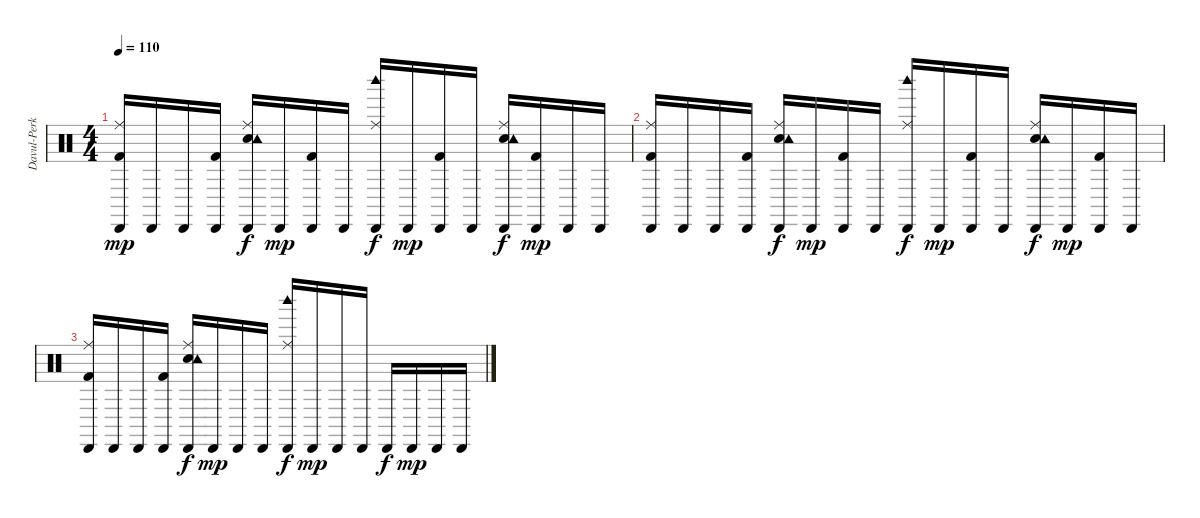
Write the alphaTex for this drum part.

\track ("Davul-Perküsyon" "Davul-Perk") {instrument percussion}
\staff {score}
\articulation defaults
\ts (4 4)
\tempo 110
\clef neutral
\ks c
("Ride (middle)" "Cabasa (hit)" "Kick (hit) 2").16{dy mp} "Cabasa (hit)".16 "Cabasa (hit)".16 ("Cabasa (hit)" "Kick (hit) 2").16 ("Electric Snare (hit)" "Ride (middle)" "Tambourine (hit)" "Cabasa (hit)").16{dy f} "Cabasa (hit)".16{dy mp} ("Cabasa (hit)" "Kick (hit) 2").16 "Cabasa (hit)".16 ("Ride (middle)" "Woodblock high (hit)" "Cabasa (hit)").16{dy f} "Cabasa (hit)".16{dy mp} ("Cabasa (hit)" "Kick (hit) 2").16 "Cabasa (hit)".16 ("Electric Snare (hit)" "Ride (middle)" "Tambourine (hit)" "Cabasa (hit)").16{dy f} ("Cabasa (hit)" "Kick (hit) 2").16{dy mp} "Cabasa (hit)".16 "Cabasa (hit)".16 |
("Ride (middle)" "Cabasa (hit)" "Kick (hit) 2").16 "Cabasa (hit)".16 "Cabasa (hit)".16 ("Cabasa (hit)" "Kick (hit) 2").16 ("Electric Snare (hit)" "Ride (middle)" "Tambourine (hit)" "Cabasa (hit)").16{dy f} "Cabasa (hit)".16{dy mp} ("Cabasa (hit)" "Kick (hit) 2").16 "Cabasa (hit)".16 ("Ride (middle)" "Woodblock high (hit)" "Cabasa (hit)").16{dy f} "Cabasa (hit)".16{dy mp} ("Cabasa (hit)" "Kick (hit) 2").16 "Cabasa (hit)".16 ("Electric Snare (hit)" "Ride (middle)" "Tambourine (hit)" "Cabasa (hit)").16{dy f} "Cabasa (hit)".16{dy mp} ("Cabasa (hit)" "Kick (hit) 2").16 "Cabasa (hit)".16 |
("Ride (middle)" "Cabasa (hit)" "Kick (hit) 2").16 "Cabasa (hit)".16 "Cabasa (hit)".16 ("Cabasa (hit)" "Kick (hit) 2").16 ("Electric Snare (hit)" "Ride (middle)" "Tambourine (hit)" "Cabasa (hit)").16{dy f} "Cabasa (hit)".16{dy mp} "Cabasa (hit)".16 "Cabasa (hit)".16 ("Ride (middle)" "Woodblock high (hit)" "Cabasa (hit)").16{dy f} "Cabasa (hit)".16{dy mp} "Cabasa (hit)".16 "Cabasa (hit)".16 "Cabasa (hit)".16{dy f} "Cabasa (hit)".16{dy mp} "Cabasa (hit)".16 "Cabasa (hit)".16
